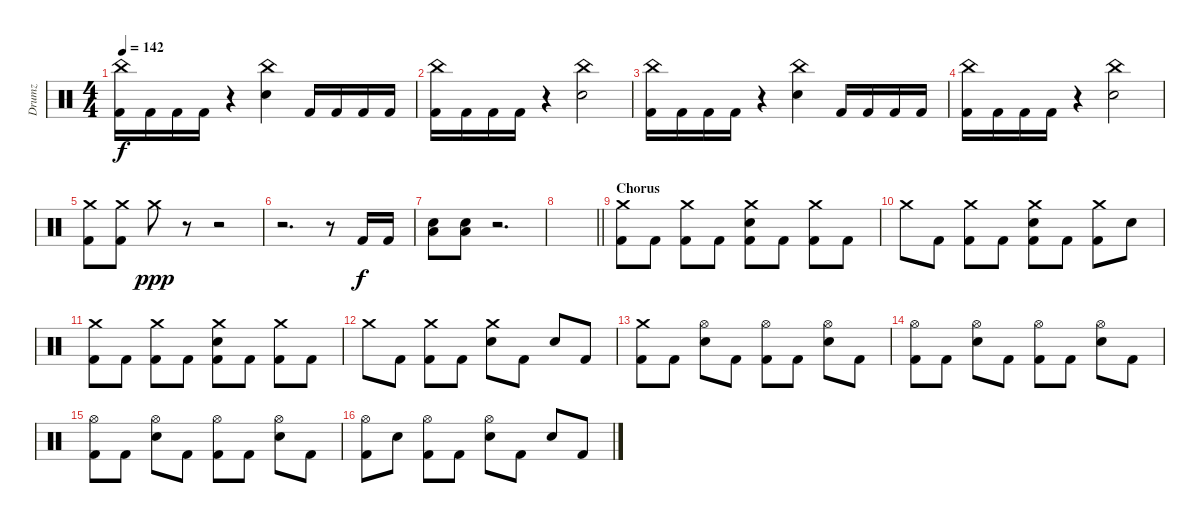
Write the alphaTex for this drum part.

\track ("Drumz" "Drumz") {instrument percussion}
\staff {score}
\articulation defaults
\ts (4 4)
\tempo 142
\clef neutral
\ks c
("China (hit)" "Kick (hit) 2").16{dy f} "Kick (hit) 2".16 "Kick (hit) 2".16 "Kick (hit) 2".16 r.4 ("China (hit)" "Electric Snare (hit)").4 "Kick (hit) 2".16 "Kick (hit) 2".16 "Kick (hit) 2".16 "Kick (hit) 2".16 |
("China (hit)" "Kick (hit) 2").16 "Kick (hit) 2".16 "Kick (hit) 2".16 "Kick (hit) 2".16 r.4 ("China (hit)" "Electric Snare (hit)").2 |
("China (hit)" "Kick (hit) 2").16 "Kick (hit) 2".16 "Kick (hit) 2".16 "Kick (hit) 2".16 r.4 ("China (hit)" "Electric Snare (hit)").4 "Kick (hit) 2".16 "Kick (hit) 2".16 "Kick (hit) 2".16 "Kick (hit) 2".16 |
("China (hit)" "Kick (hit) 2").16 "Kick (hit) 2".16 "Kick (hit) 2".16 "Kick (hit) 2".16 r.4 ("China (hit)" "Electric Snare (hit)").2 |
("Crash medium (hit)" "Kick (hit) 2").8 ("Crash medium (hit)" "Kick (hit) 2").8 "Crash medium (hit)".8{dy ppp} r.8 r.2 |
r.2{d} r.8 "Kick (hit) 2".16{dy f} "Kick (hit) 2".16 |
("Low Floor Tom (hit)" "Electric Snare (hit)").8 ("Low Floor Tom (hit)" "Electric Snare (hit)").8 r.2{d} |
\barLineRight lightlight
|
\section ("" "Chorus")
("Crash medium (hit)" "Kick (hit) 2").8 "Kick (hit) 2".8 ("Crash medium (hit)" "Kick (hit) 2").8 "Kick (hit) 2".8 ("Crash medium (hit)" "Electric Snare (hit)" "Kick (hit) 2").8 "Kick (hit) 2".8 ("Crash medium (hit)" "Kick (hit) 2").8 "Kick (hit) 2".8 |
"Crash medium (hit)".8 "Kick (hit) 2".8 ("Crash medium (hit)" "Kick (hit) 2").8 "Kick (hit) 2".8 ("Crash medium (hit)" "Electric Snare (hit)" "Kick (hit) 2").8 "Kick (hit) 2".8 ("Crash medium (hit)" "Kick (hit) 2").8 "Electric Snare (hit)".8 |
("Crash medium (hit)" "Kick (hit) 2").8 "Kick (hit) 2".8 ("Crash medium (hit)" "Kick (hit) 2").8 "Kick (hit) 2".8 ("Crash medium (hit)" "Electric Snare (hit)" "Kick (hit) 2").8 "Kick (hit) 2".8 ("Crash medium (hit)" "Kick (hit) 2").8 "Kick (hit) 2".8 |
"Crash medium (hit)".8 "Kick (hit) 2".8 ("Crash medium (hit)" "Kick (hit) 2").8 "Kick (hit) 2".8 ("Crash medium (hit)" "Electric Snare (hit)").8 "Kick (hit) 2".8 "Electric Snare (hit)".8 "Kick (hit) 2".8 |
("Crash medium (hit)" "Kick (hit) 2").8 "Kick (hit) 2".8 ("Hi-Hat (open)" "Electric Snare (hit)").8 "Kick (hit) 2".8 ("Hi-Hat (open)" "Kick (hit) 2").8 "Kick (hit) 2".8 ("Hi-Hat (open)" "Electric Snare (hit)").8 "Kick (hit) 2".8 |
("Hi-Hat (open)" "Kick (hit) 2").8 "Kick (hit) 2".8 ("Hi-Hat (open)" "Electric Snare (hit)").8 "Kick (hit) 2".8 ("Hi-Hat (open)" "Kick (hit) 2").8 "Kick (hit) 2".8 ("Hi-Hat (open)" "Electric Snare (hit)").8 "Kick (hit) 2".8 |
("Hi-Hat (open)" "Kick (hit) 2").8 "Kick (hit) 2".8 ("Hi-Hat (open)" "Electric Snare (hit)").8 "Kick (hit) 2".8 ("Hi-Hat (open)" "Kick (hit) 2").8 "Kick (hit) 2".8 ("Hi-Hat (open)" "Electric Snare (hit)").8 "Kick (hit) 2".8 |
("Hi-Hat (open)" "Kick (hit) 2").8 "Electric Snare (hit)".8 ("Hi-Hat (open)" "Kick (hit) 2").8 "Kick (hit) 2".8 ("Hi-Hat (open)" "Electric Snare (hit)").8 "Kick (hit) 2".8 "Electric Snare (hit)".8 "Kick (hit) 2".8
